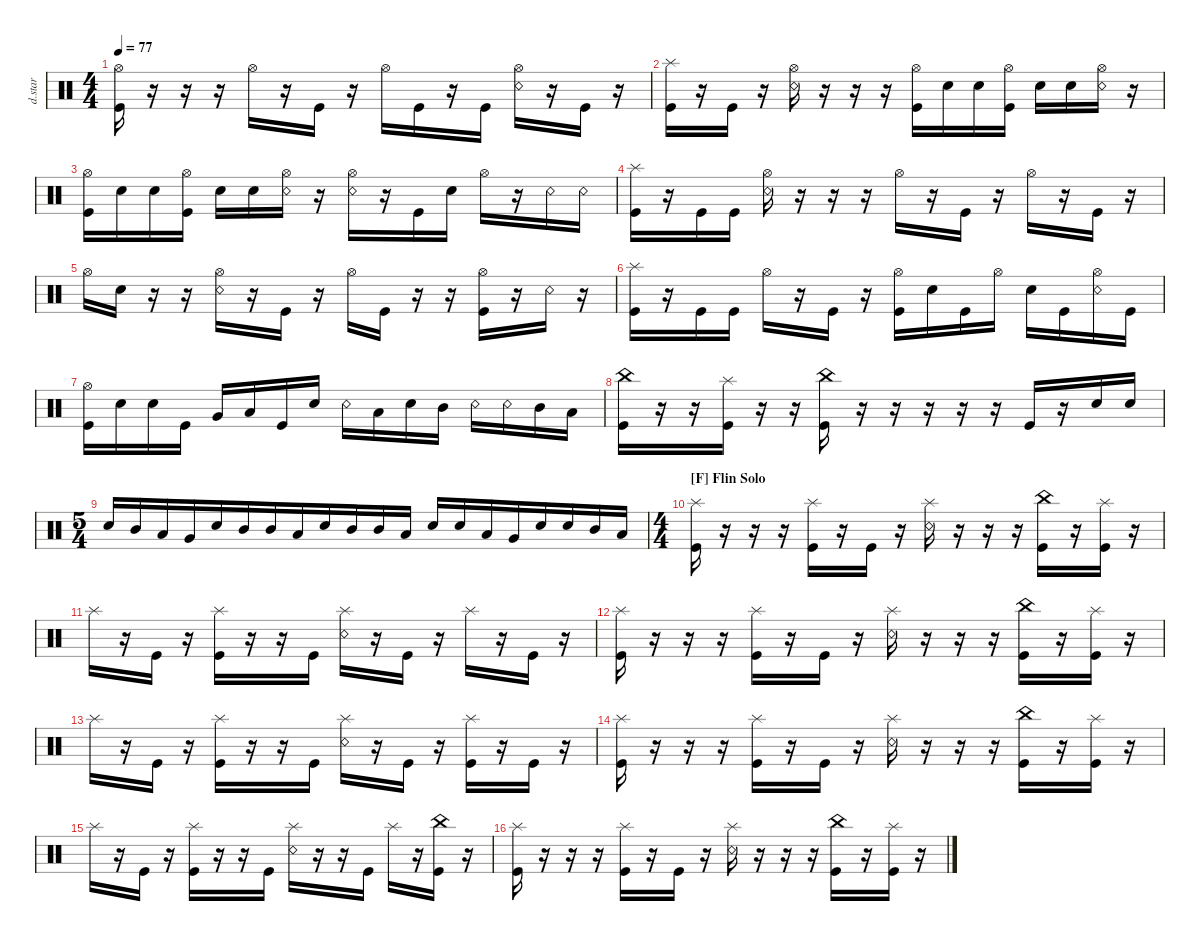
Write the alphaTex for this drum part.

\defaultSystemsLayout 4
\hideDynamics
\bracketExtendMode nobrackets
\otherSystemsTrackNameOrientation horizontal
\track ("Drumkit Star" "d.star") {instrument percussion}
\staff {score}
\articulation defaults
\ts (4 4)
\tempo 77
\clef neutral
\ks c
("Kick (hit)" "Hi-Hat (open)").16{dy ff} r.16 r.16 r.16 "Hi-Hat (open)".16 r.16 "Kick (hit)".16 r.16 "Hi-Hat (open)".16 "Kick (hit)".16 r.16 "Kick (hit)".16 ("Hi-Hat (open)" "Snare (rim shot)").16 r.16 "Kick (hit)".16 r.16 |
("Splash (hit)" "Kick (hit)").16 r.16 "Kick (hit)".16 r.16 ("Snare (rim shot)" "Hi-Hat (open)").16 r.16 r.16 r.16 ("Hi-Hat (open)" "Kick (hit)").16 "Snare (hit) 2".16{dy mp} "Snare (hit) 2".16 ("Kick (hit)" "Hi-Hat (open)").16{dy ff} "Snare (hit) 2".16{dy mp} "Snare (hit) 2".16 ("Snare (rim shot)" "Hi-Hat (open)").16{dy ff} r.16 |
("Kick (hit)" "Hi-Hat (open)").16 "Snare (hit) 2".16{dy mp} "Snare (hit) 2".16 ("Kick (hit)" "Hi-Hat (open)").16{dy ff} "Snare (hit) 2".16{dy mp} "Snare (hit) 2".16 ("Hi-Hat (open)" "Snare (rim shot)").16{dy ff} r.16 ("Hi-Hat (open)" "Snare (rim shot)").16 r.16 "Kick (hit)".16 "Snare (hit) 2".16{dy mp} "Hi-Hat (open)".16{dy ff} r.16 "Snare (rim shot)".16 "Snare (rim shot)".16 |
("Kick (hit)" "Splash (hit)").16 r.16 "Kick (hit)".16 "Kick (hit)".16 ("Hi-Hat (open)" "Snare (rim shot)").16 r.16 r.16 r.16 "Hi-Hat (open)".16 r.16 "Kick (hit)".16 r.16 "Hi-Hat (open)".16 r.16 "Kick (hit)".16 r.16 |
"Hi-Hat (open)".16 "Snare (hit) 2".16{dy mp} r.16 r.16 ("Hi-Hat (open)" "Snare (rim shot)").16{dy ff} r.16 "Kick (hit)".16 r.16 "Hi-Hat (open)".16 "Kick (hit)".16 r.16 r.16 ("Hi-Hat (open)" "Kick (hit)").16 r.16 "Snare (rim shot)".16 r.16 |
("Kick (hit)" "Splash (hit)").16 r.16 "Kick (hit)".16 "Kick (hit)".16 "Hi-Hat (open)".16 r.16 "Kick (hit)".16 r.16 ("Hi-Hat (open)" "Kick (hit)").16 "Snare (hit) 2".16{dy mp} "Kick (hit)".16{dy ff} "Hi-Hat (open)".16 "Snare (hit) 2".16{dy mp} "Kick (hit)".16{dy ff} ("Snare (rim shot)" "Hi-Hat (open)").16 "Kick (hit)".16 |
("Hi-Hat (open)" "Kick (hit)").16 "Snare (hit) 2".16{dy mp} "Snare (hit) 2".16 "Kick (hit)".16{dy ff} "Very Low Tom (hit)".16 "Low Tom (hit)".16 "Kick (hit)".16 "Snare (hit) 2".16 "Snare (rim shot)".16 "Low Tom (hit)".16 "Snare (hit) 2".16 "Mid Tom (hit)".16 "Snare (rim shot)".16 "Snare (rim shot)".16 "Mid Tom (hit)".16 "Low Tom (hit)".16 |
("China (hit)" "Kick (hit)").16 r.16 r.16 ("Splash (hit)" "Kick (hit)").16 r.16 r.16 ("Kick (hit)" "China (hit)").16 r.16 r.16 r.16 r.16 r.16 "Kick (hit)".16 r.16 "Snare (hit) 2".16 "Snare (hit) 2".16 |
\ts (5 4)
\beaming (8 6 4)
"Snare (hit) 2".16 "Mid Tom (hit)".16 "Low Tom (hit)".16 "Very Low Tom (hit)".16 "Snare (hit) 2".16 "Mid Tom (hit)".16 "Mid Tom (hit)".16 "Low Tom (hit)".16 "Snare (hit) 2".16 "Mid Tom (hit)".16 "Mid Tom (hit)".16 "Low Tom (hit)".16 "Snare (hit) 2".16 "Snare (hit) 2".16 "Low Tom (hit)".16 "Very Low Tom (hit)".16 "Snare (hit) 2".16 "Snare (hit) 2".16 "Mid Tom (hit)".16 "Low Tom (hit)".16 |
\ts (4 4)
\beaming (8 2 2 2 2)
\section ("F" "Flin Solo")
("Splash (hit)" "Kick (hit)").16 r.16 r.16 r.16 ("Splash (hit)" "Kick (hit)").16 r.16 "Kick (hit)".16 r.16 ("Splash (hit)" "Snare (rim shot)").16 r.16 r.16 r.16 ("China (hit)" "Kick (hit)").16 r.16 ("Splash (hit)" "Kick (hit)").16 r.16 |
"Splash (hit)".16 r.16 "Kick (hit)".16 r.16 ("Splash (hit)" "Kick (hit)").16 r.16 r.16 "Kick (hit)".16 ("Splash (hit)" "Snare (rim shot)").16 r.16 "Kick (hit)".16 r.16 "Splash (hit)".16 r.16 "Kick (hit)".16 r.16 |
("Splash (hit)" "Kick (hit)").16 r.16 r.16 r.16 ("Splash (hit)" "Kick (hit)").16 r.16 "Kick (hit)".16 r.16 ("Splash (hit)" "Snare (rim shot)").16 r.16 r.16 r.16 ("China (hit)" "Kick (hit)").16 r.16 ("Splash (hit)" "Kick (hit)").16 r.16 |
"Splash (hit)".16 r.16 "Kick (hit)".16 r.16 ("Splash (hit)" "Kick (hit)").16 r.16 r.16 "Kick (hit)".16 ("Splash (hit)" "Snare (rim shot)").16 r.16 "Kick (hit)".16 r.16 ("Splash (hit)" "Kick (hit)").16 r.16 "Kick (hit)".16 r.16 |
("Splash (hit)" "Kick (hit)").16 r.16 r.16 r.16 ("Splash (hit)" "Kick (hit)").16 r.16 "Kick (hit)".16 r.16 ("Splash (hit)" "Snare (rim shot)").16 r.16 r.16 r.16 ("China (hit)" "Kick (hit)").16 r.16 ("Splash (hit)" "Kick (hit)").16 r.16 |
"Splash (hit)".16 r.16 "Kick (hit)".16 r.16 ("Splash (hit)" "Kick (hit)").16 r.16 r.16 "Kick (hit)".16 ("Splash (hit)" "Snare (rim shot)").16 r.16 r.16 "Kick (hit)".16 "Splash (hit)".16 r.16 ("Kick (hit)" "China (hit)").16 r.16 |
("Splash (hit)" "Kick (hit)").16 r.16 r.16 r.16 ("Splash (hit)" "Kick (hit)").16 r.16 "Kick (hit)".16 r.16 ("Splash (hit)" "Snare (rim shot)").16 r.16 r.16 r.16 ("China (hit)" "Kick (hit)").16 r.16 ("Splash (hit)" "Kick (hit)").16 r.16
